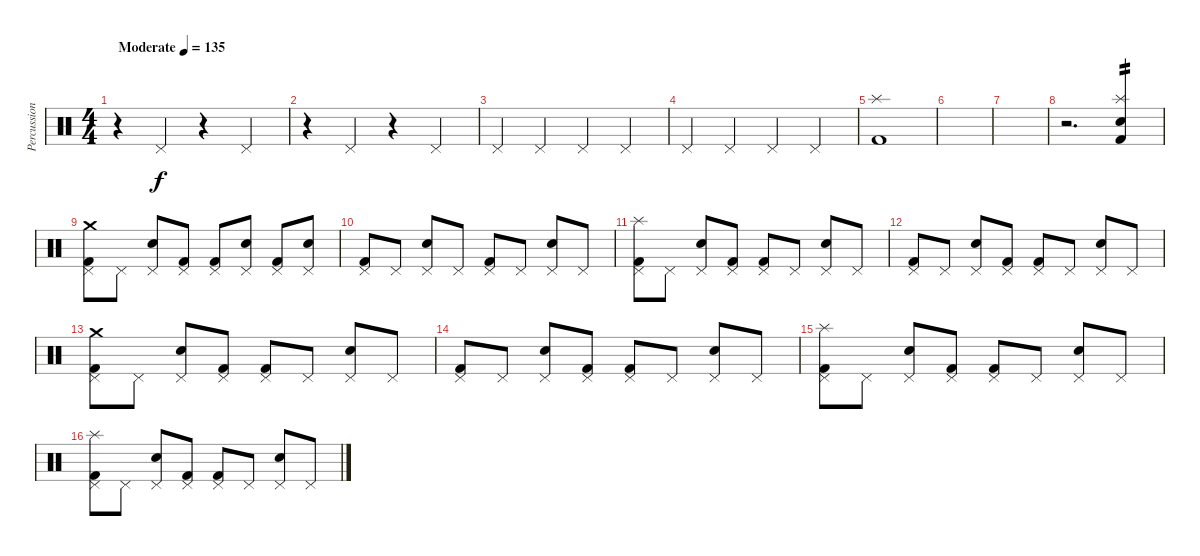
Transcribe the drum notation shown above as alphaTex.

\track ("Percussion" "Percussion") {instrument percussion}
\staff {score}
\articulation defaults
\ts (4 4)
\tempo (135 "Moderate")
\clef neutral
\ks c
r.4{dy f} "Pedal Hi-Hat (hit)".4 r.4 "Pedal Hi-Hat (hit)".4 |
r.4 "Pedal Hi-Hat (hit)".4 r.4 "Pedal Hi-Hat (hit)".4 |
"Pedal Hi-Hat (hit)".4 "Pedal Hi-Hat (hit)".4 "Pedal Hi-Hat (hit)".4 "Pedal Hi-Hat (hit)".4 |
"Pedal Hi-Hat (hit)".4 "Pedal Hi-Hat (hit)".4 "Pedal Hi-Hat (hit)".4 "Pedal Hi-Hat (hit)".4 |
("Kick (hit) 2" "Splash (hit)").1 |
|
|
r.2{d} ("Kick (hit) 2" "Snare (hit) 2" "Splash (hit)").4{tp 2} |
("Kick (hit) 2" "Pedal Hi-Hat (hit)" "Crash medium (hit)").8 "Pedal Hi-Hat (hit)".8 ("Snare (hit) 2" "Pedal Hi-Hat (hit)").8 ("Kick (hit) 2" "Pedal Hi-Hat (hit)").8 ("Kick (hit) 2" "Pedal Hi-Hat (hit)").8 ("Snare (hit) 2" "Pedal Hi-Hat (hit)").8 ("Kick (hit) 2" "Pedal Hi-Hat (hit)").8 ("Snare (hit) 2" "Pedal Hi-Hat (hit)").8 |
("Kick (hit) 2" "Pedal Hi-Hat (hit)").8 "Pedal Hi-Hat (hit)".8 ("Snare (hit) 2" "Pedal Hi-Hat (hit)").8 "Pedal Hi-Hat (hit)".8 ("Kick (hit) 2" "Pedal Hi-Hat (hit)").8 "Pedal Hi-Hat (hit)".8 ("Snare (hit) 2" "Pedal Hi-Hat (hit)").8 "Pedal Hi-Hat (hit)".8 |
("Kick (hit) 2" "Splash (hit)" "Pedal Hi-Hat (hit)").8 "Pedal Hi-Hat (hit)".8 ("Snare (hit) 2" "Pedal Hi-Hat (hit)").8 ("Kick (hit) 2" "Pedal Hi-Hat (hit)").8 ("Kick (hit) 2" "Pedal Hi-Hat (hit)").8 "Pedal Hi-Hat (hit)".8 ("Snare (hit) 2" "Pedal Hi-Hat (hit)").8 "Pedal Hi-Hat (hit)".8 |
("Kick (hit) 2" "Pedal Hi-Hat (hit)").8 "Pedal Hi-Hat (hit)".8 ("Snare (hit) 2" "Pedal Hi-Hat (hit)").8 ("Kick (hit) 2" "Pedal Hi-Hat (hit)").8 ("Kick (hit) 2" "Pedal Hi-Hat (hit)").8 "Pedal Hi-Hat (hit)".8 ("Snare (hit) 2" "Pedal Hi-Hat (hit)").8 "Pedal Hi-Hat (hit)".8 |
("Kick (hit) 2" "Crash medium (hit)" "Pedal Hi-Hat (hit)").8 "Pedal Hi-Hat (hit)".8 ("Snare (hit) 2" "Pedal Hi-Hat (hit)").8 ("Kick (hit) 2" "Pedal Hi-Hat (hit)").8 ("Kick (hit) 2" "Pedal Hi-Hat (hit)").8 "Pedal Hi-Hat (hit)".8 ("Snare (hit) 2" "Pedal Hi-Hat (hit)").8 "Pedal Hi-Hat (hit)".8 |
("Kick (hit) 2" "Pedal Hi-Hat (hit)").8 "Pedal Hi-Hat (hit)".8 ("Snare (hit) 2" "Pedal Hi-Hat (hit)").8 ("Kick (hit) 2" "Pedal Hi-Hat (hit)").8 ("Kick (hit) 2" "Pedal Hi-Hat (hit)").8 "Pedal Hi-Hat (hit)".8 ("Snare (hit) 2" "Pedal Hi-Hat (hit)").8 "Pedal Hi-Hat (hit)".8 |
("Kick (hit) 2" "Splash (hit)" "Pedal Hi-Hat (hit)").8 "Pedal Hi-Hat (hit)".8 ("Snare (hit) 2" "Pedal Hi-Hat (hit)").8 ("Kick (hit) 2" "Pedal Hi-Hat (hit)").8 ("Kick (hit) 2" "Pedal Hi-Hat (hit)").8 "Pedal Hi-Hat (hit)".8 ("Snare (hit) 2" "Pedal Hi-Hat (hit)").8 "Pedal Hi-Hat (hit)".8 |
("Kick (hit) 2" "Splash (hit)" "Pedal Hi-Hat (hit)").8 "Pedal Hi-Hat (hit)".8 ("Snare (hit) 2" "Pedal Hi-Hat (hit)").8 ("Kick (hit) 2" "Pedal Hi-Hat (hit)").8 ("Kick (hit) 2" "Pedal Hi-Hat (hit)").8 "Pedal Hi-Hat (hit)".8 ("Snare (hit) 2" "Pedal Hi-Hat (hit)").8 "Pedal Hi-Hat (hit)".8
